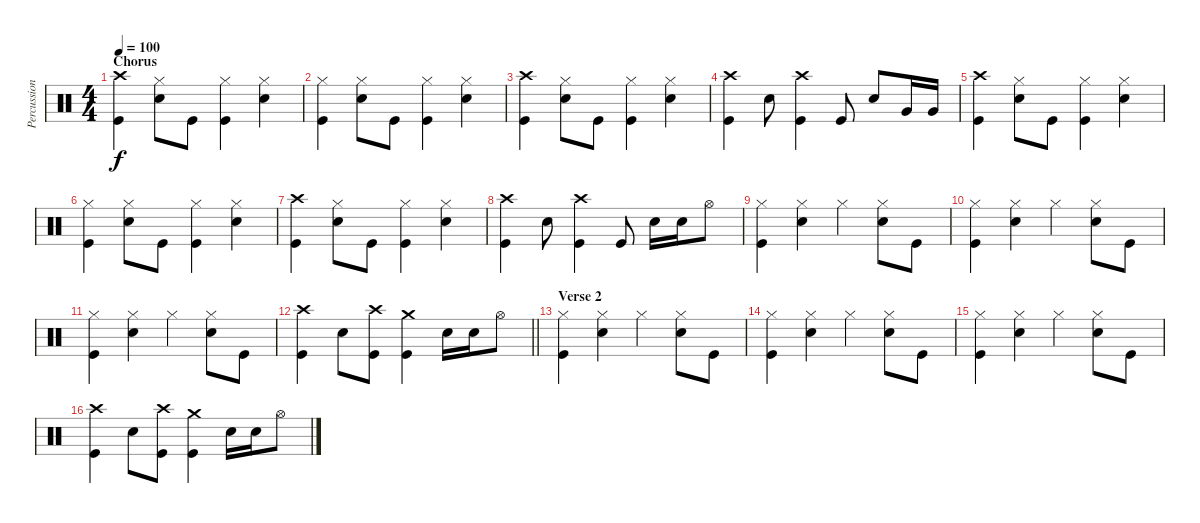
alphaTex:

\track ("Percussion" "Percussion") {instrument percussion}
\staff {score}
\articulation defaults
\ts (4 4)
\section ("" "Chorus")
\tempo 100
\clef neutral
\ks c
("Crash high (hit)" "Kick (hit)").4{dy f} ("Hi-Hat (closed)" "Snare (hit) 2").8 "Kick (hit)".8 ("Hi-Hat (closed)" "Kick (hit)").4 ("Snare (hit) 2" "Hi-Hat (closed)").4 |
("Hi-Hat (closed)" "Kick (hit)").4 ("Hi-Hat (closed)" "Snare (hit) 2").8 "Kick (hit)".8 ("Hi-Hat (closed)" "Kick (hit)").4 ("Snare (hit) 2" "Hi-Hat (closed)").4 |
("Crash high (hit)" "Kick (hit)").4 ("Hi-Hat (closed)" "Snare (hit) 2").8 "Kick (hit)".8 ("Hi-Hat (closed)" "Kick (hit)").4 ("Snare (hit) 2" "Hi-Hat (closed)").4 |
("Crash high (hit)" "Kick (hit)").4 "Snare (hit) 2".8 ("Crash high (hit)" "Kick (hit)").4 "Kick (hit)".8 "Snare (hit) 2".8 "Very Low Tom (hit)".16 "Very Low Tom (hit)".16 |
("Crash high (hit)" "Kick (hit)").4 ("Hi-Hat (closed)" "Snare (hit) 2").8 "Kick (hit)".8 ("Hi-Hat (closed)" "Kick (hit)").4 ("Snare (hit) 2" "Hi-Hat (closed)").4 |
("Hi-Hat (closed)" "Kick (hit)").4 ("Hi-Hat (closed)" "Snare (hit) 2").8 "Kick (hit)".8 ("Hi-Hat (closed)" "Kick (hit)").4 ("Snare (hit) 2" "Hi-Hat (closed)").4 |
("Crash high (hit)" "Kick (hit)").4 ("Hi-Hat (closed)" "Snare (hit) 2").8 "Kick (hit)".8 ("Hi-Hat (closed)" "Kick (hit)").4 ("Snare (hit) 2" "Hi-Hat (closed)").4 |
("Crash high (hit)" "Kick (hit)").4 "Snare (hit) 2".8 ("Crash high (hit)" "Kick (hit)").4 "Kick (hit)".8 "Snare (hit) 2".16 "Snare (hit) 2".16 "Hi-Hat (open)".8 |
("Hi-Hat (closed)" "Kick (hit)").4 ("Hi-Hat (closed)" "Snare (hit) 2").4 "Hi-Hat (closed)".4 ("Hi-Hat (closed)" "Snare (hit) 2").8 "Kick (hit)".8 |
("Hi-Hat (closed)" "Kick (hit)").4 ("Hi-Hat (closed)" "Snare (hit) 2").4 "Hi-Hat (closed)".4 ("Hi-Hat (closed)" "Snare (hit) 2").8 "Kick (hit)".8 |
("Hi-Hat (closed)" "Kick (hit)").4 ("Hi-Hat (closed)" "Snare (hit) 2").4 "Hi-Hat (closed)".4 ("Hi-Hat (closed)" "Snare (hit) 2").8 "Kick (hit)".8 |
\barLineRight lightlight
("Kick (hit)" "Crash high (hit)").4 "Snare (hit) 2".8 ("Kick (hit)" "Crash high (hit)").8 ("Kick (hit)" "Crash medium (hit)").4 "Snare (hit) 2".16 "Snare (hit) 2".16 "Hi-Hat (open)".8 |
\section ("" "Verse 2")
("Hi-Hat (closed)" "Kick (hit)").4 ("Hi-Hat (closed)" "Snare (hit) 2").4 "Hi-Hat (closed)".4 ("Hi-Hat (closed)" "Snare (hit) 2").8 "Kick (hit)".8 |
("Hi-Hat (closed)" "Kick (hit)").4 ("Hi-Hat (closed)" "Snare (hit) 2").4 "Hi-Hat (closed)".4 ("Hi-Hat (closed)" "Snare (hit) 2").8 "Kick (hit)".8 |
("Hi-Hat (closed)" "Kick (hit)").4 ("Hi-Hat (closed)" "Snare (hit) 2").4 "Hi-Hat (closed)".4 ("Hi-Hat (closed)" "Snare (hit) 2").8 "Kick (hit)".8 |
("Kick (hit)" "Crash high (hit)").4 "Snare (hit) 2".8 ("Kick (hit)" "Crash high (hit)").8 ("Kick (hit)" "Crash medium (hit)").4 "Snare (hit) 2".16 "Snare (hit) 2".16 "Hi-Hat (open)".8
